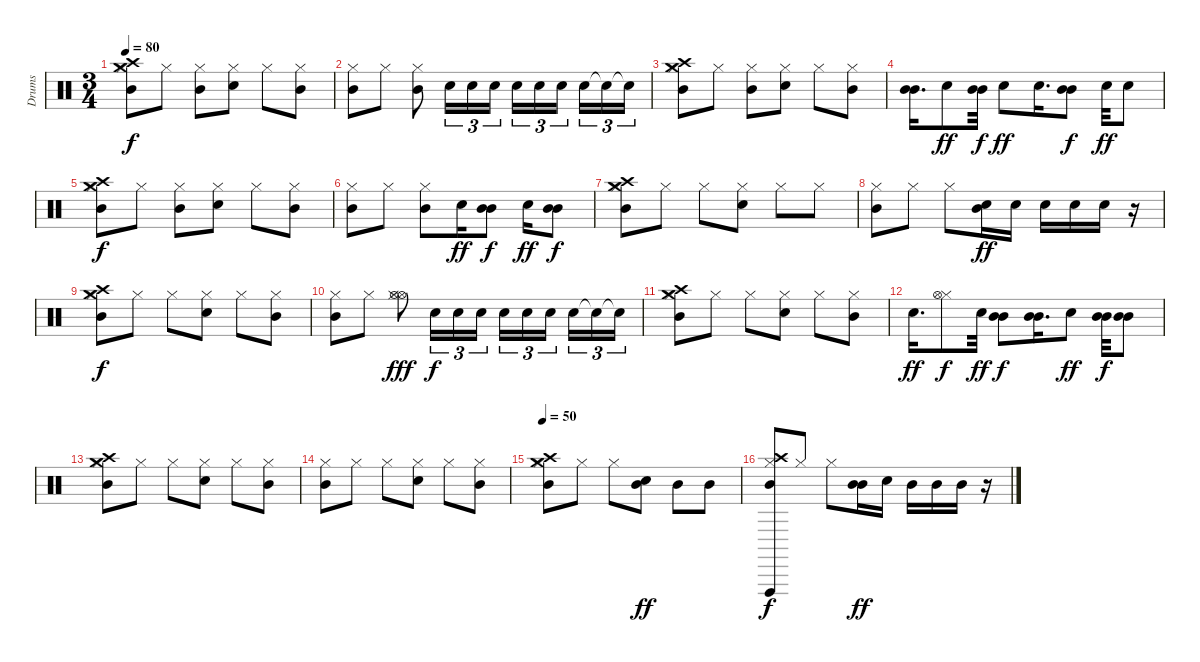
\track ("Drums" "Drums") {instrument percussion}
\staff {score}
\articulation defaults
\ts (3 4)
\tempo 80
\clef neutral
\ks c
("Crash high (hit)" "Crash medium (hit)" "Hi-Hat (closed)" "Mid Tom (hit)").8{dy f volume 16} "Hi-Hat (closed)".8 ("Hi-Hat (closed)" "Mid Tom (hit)").8 ("Hi-Hat (closed)" "Snare (hit) 2").8 "Hi-Hat (closed)".8 ("Hi-Hat (closed)" "Mid Tom (hit)").8 |
("Hi-Hat (closed)" "Mid Tom (hit)").8 "Hi-Hat (closed)".8 ("Hi-Hat (closed)" "Mid Tom (hit)").8 "Snare (hit) 2".16{tu (3 2)} "Snare (hit) 2".16{tu (3 2)} "Snare (hit) 2".16{tu (3 2)} "Snare (hit) 2".16{tu (3 2)} "Snare (hit) 2".16{tu (3 2)} "Snare (hit) 2".16{tu (3 2)} "Snare (hit) 2".16{tu (3 2)} "Snare (hit)"{t}.16{tu (3 2)} "Snare (hit)"{t}.16{tu (3 2)} |
("Crash high (hit)" "Crash medium (hit)" "Hi-Hat (closed)" "Mid Tom (hit)").8 "Hi-Hat (closed)".8 ("Hi-Hat (closed)" "Mid Tom (hit)").8 ("Hi-Hat (closed)" "Snare (hit) 2").8 "Hi-Hat (closed)".8 ("Hi-Hat (closed)" "Mid Tom (hit)").8 |
("Mid Tom (hit)" "Mid Tom (hit)").16{d} "Snare (hit) 2".8{dy ff} ("Mid Tom (hit)" "Mid Tom (hit)").32{dy f} "Snare (hit) 2".8{dy ff} "Snare (hit) 2".16{d} ("Mid Tom (hit)" "Mid Tom (hit)").8{dy f} "Snare (hit) 2".32{dy ff} "Snare (hit) 2".8 |
("Crash high (hit)" "Crash medium (hit)" "Hi-Hat (closed)" "Mid Tom (hit)").8{dy f} "Hi-Hat (closed)".8 ("Hi-Hat (closed)" "Mid Tom (hit)").8 ("Hi-Hat (closed)" "Snare (hit) 2").8 "Hi-Hat (closed)".8 ("Hi-Hat (closed)" "Mid Tom (hit)").8 |
("Hi-Hat (closed)" "Mid Tom (hit)").8 "Hi-Hat (closed)".8 ("Hi-Hat (closed)" "Mid Tom (hit)").8 "Snare (hit) 2".16{dy ff} ("Mid Tom (hit)" "Mid Tom (hit)").8{dy f} "Snare (hit) 2".16{dy ff} ("Mid Tom (hit)" "Mid Tom (hit)").8{dy f} |
("Crash high (hit)" "Crash medium (hit)" "Hi-Hat (closed)" "Mid Tom (hit)").8 "Hi-Hat (closed)".8 "Hi-Hat (closed)".8 ("Hi-Hat (closed)" "Snare (hit) 2").8 "Hi-Hat (closed)".8 "Hi-Hat (closed)".8 |
("Hi-Hat (closed)" "Mid Tom (hit)").8 "Hi-Hat (closed)".8 "Hi-Hat (closed)".8 ("Snare (hit) 2" "Mid Tom (hit)").16{bd 120 dy ff} "Snare (hit) 2".16 "Snare (hit) 2".16 "Snare (hit) 2".16 "Snare (hit) 2".16 r.16 |
("Crash high (hit)" "Crash medium (hit)" "Hi-Hat (closed)" "Mid Tom (hit)").8{dy f} "Hi-Hat (closed)".8 "Hi-Hat (closed)".8 ("Hi-Hat (closed)" "Snare (hit) 2").8 "Hi-Hat (closed)".8 ("Hi-Hat (closed)" "Mid Tom (hit)").8 |
("Hi-Hat (closed)" "Mid Tom (hit)").8 "Hi-Hat (closed)".8 ("Hi-Hat (open)" "Hi-Hat (open)" "Hi-Hat (closed)").8{dy fff} "Snare (hit) 2".16{tu (3 2) dy f} "Snare (hit) 2".16{tu (3 2)} "Snare (hit) 2".16{tu (3 2)} "Snare (hit) 2".16{tu (3 2)} "Snare (hit) 2".16{tu (3 2)} "Snare (hit) 2".16{tu (3 2)} "Snare (hit) 2".16{tu (3 2)} "Snare (hit)"{t}.16{tu (3 2)} "Snare (hit)"{t}.16{tu (3 2)} |
("Crash high (hit)" "Crash medium (hit)" "Hi-Hat (closed)" "Mid Tom (hit)").8 "Hi-Hat (closed)".8 "Hi-Hat (closed)".8 ("Hi-Hat (closed)" "Snare (hit) 2").8 "Hi-Hat (closed)".8 ("Hi-Hat (closed)" "Mid Tom (hit)").8 |
"Snare (hit) 2".16{d dy ff} ("Hi-Hat (closed)" "Hi-Hat (open)").8{dy f} "Snare (hit) 2".32{dy ff} ("Mid Tom (hit)" "Mid Tom (hit)").8{dy f} ("Mid Tom (hit)" "Mid Tom (hit)").16{d} "Snare (hit) 2".8{dy ff} ("Mid Tom (hit)" "Mid Tom (hit)").32{dy f} ("Mid Tom (hit)" "Mid Tom (hit)").8 |
("Crash high (hit)" "Crash medium (hit)" "Hi-Hat (closed)" "Mid Tom (hit)").8 "Hi-Hat (closed)".8 "Hi-Hat (closed)".8 ("Hi-Hat (closed)" "Snare (hit) 2").8 "Hi-Hat (closed)".8 ("Hi-Hat (closed)" "Mid Tom (hit)").8 |
("Hi-Hat (closed)" "Mid Tom (hit)").8 "Hi-Hat (closed)".8 "Hi-Hat (closed)".8 ("Hi-Hat (closed)" "Snare (hit) 2").8 "Hi-Hat (closed)".8 ("Hi-Hat (closed)" "Mid Tom (hit)").8 |
\tempo 50
("Crash high (hit)" "Crash medium (hit)" "Hi-Hat (closed)" "Mid Tom (hit)").8 "Hi-Hat (closed)".8 "Hi-Hat (closed)".8 ("Snare (hit) 2" "Mid Tom (hit)").8{bd 120 dy ff} "Mid Tom (hit)".8 "Mid Tom (hit)".8 |
("Crash high (hit)" "Vibraslap (hit)" "Hi-Hat (closed)" "Mid Tom (hit)").8{dy f} "Hi-Hat (closed)".8 "Hi-Hat (closed)".8 ("Mid Tom (hit)" "Mid Tom (hit)").16{bd 120 dy ff} "Snare (hit) 2".16 "Mid Tom (hit)".16 "Mid Tom (hit)".16 "Mid Tom (hit)".16 r.16
